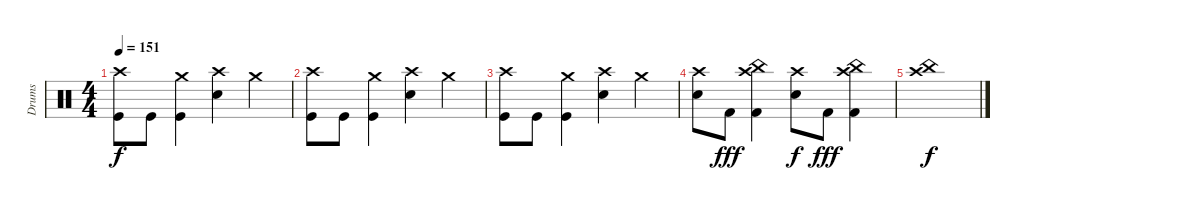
\track ("Drums" "Drums") {instrument percussion}
\staff {score}
\articulation defaults
\ts (4 4)
\tempo 151
\clef neutral
\ks c
("Crash high (hit)" "Kick (hit)").8{dy f} "Kick (hit)".8 ("Crash medium (hit)" "Kick (hit)").4 ("Crash high (hit)" "Electric Snare (hit)").4 "Crash medium (hit)".4 |
("Crash high (hit)" "Kick (hit)").8 "Kick (hit)".8 ("Crash medium (hit)" "Kick (hit)").4 ("Crash high (hit)" "Electric Snare (hit)").4 "Crash medium (hit)".4 |
("Crash high (hit)" "Kick (hit)").8 "Kick (hit)".8 ("Crash medium (hit)" "Kick (hit)").4 ("Crash high (hit)" "Electric Snare (hit)").4 "Crash medium (hit)".4 |
("Crash high (hit)" "Electric Snare (hit)").8 "Kick (hit) 2".8{dy fff} ("Crash high (hit)" "China (hit)" "Kick (hit) 2").4 ("Crash high (hit)" "Electric Snare (hit)").8{dy f} "Kick (hit) 2".8{dy fff} ("Crash high (hit)" "China (hit)" "Kick (hit) 2").4 |
("Crash high (hit)" "China (hit)").1{dy f}
